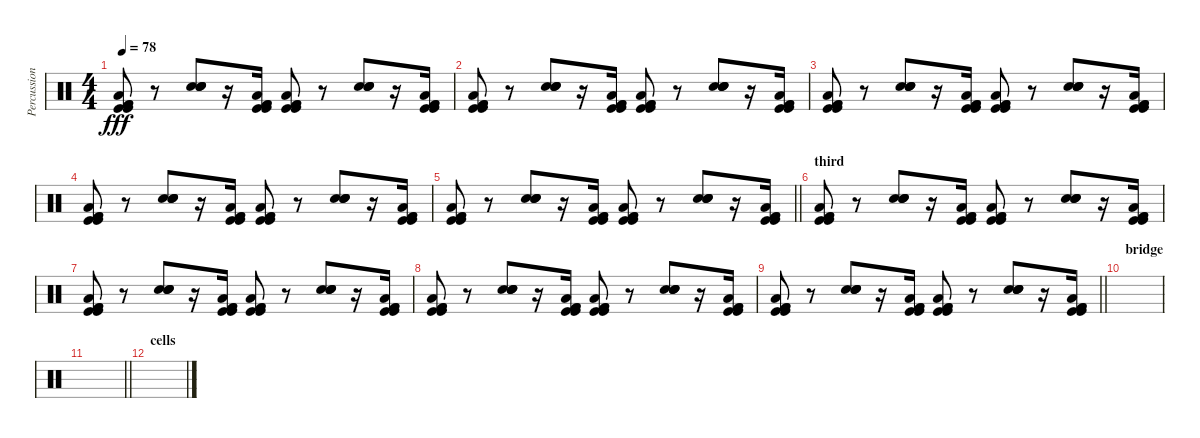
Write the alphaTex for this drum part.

\track ("Percussion" "Percussion") {instrument percussion}
\staff {score}
\articulation defaults
\ts (4 4)
\tempo 78
\clef neutral
\ks c
("Kick (hit) 2" "Kick (hit) 2" "Kick (hit)" "Kick (hit)" "Low Floor Tom (hit)").8{dy fff} r.8 ("Snare (hit) 2" "Snare (hit) 2" "Electric Snare (hit)" "Electric Snare (hit)").8 r.16 ("Kick (hit) 2" "Kick (hit) 2" "Kick (hit)" "Kick (hit)" "Low Floor Tom (hit)").16 ("Kick (hit) 2" "Kick (hit) 2" "Kick (hit)" "Kick (hit)" "Low Floor Tom (hit)").8 r.8 ("Snare (hit) 2" "Snare (hit) 2" "Electric Snare (hit)" "Electric Snare (hit)").8 r.16 ("Kick (hit) 2" "Kick (hit) 2" "Kick (hit)" "Kick (hit)" "Low Floor Tom (hit)").16 |
("Kick (hit) 2" "Kick (hit) 2" "Kick (hit)" "Kick (hit)" "Low Floor Tom (hit)").8 r.8 ("Snare (hit) 2" "Snare (hit) 2" "Electric Snare (hit)" "Electric Snare (hit)").8 r.16 ("Kick (hit) 2" "Kick (hit) 2" "Kick (hit)" "Kick (hit)" "Low Floor Tom (hit)").16 ("Kick (hit) 2" "Kick (hit) 2" "Kick (hit)" "Kick (hit)" "Low Floor Tom (hit)").8 r.8 ("Snare (hit) 2" "Snare (hit) 2" "Electric Snare (hit)" "Electric Snare (hit)").8 r.16 ("Kick (hit) 2" "Kick (hit) 2" "Kick (hit)" "Kick (hit)" "Low Floor Tom (hit)").16 |
("Kick (hit) 2" "Kick (hit) 2" "Kick (hit)" "Kick (hit)" "Low Floor Tom (hit)").8 r.8 ("Snare (hit) 2" "Snare (hit) 2" "Electric Snare (hit)" "Electric Snare (hit)").8 r.16 ("Kick (hit) 2" "Kick (hit) 2" "Kick (hit)" "Kick (hit)" "Low Floor Tom (hit)").16 ("Kick (hit) 2" "Kick (hit) 2" "Kick (hit)" "Kick (hit)" "Low Floor Tom (hit)").8 r.8 ("Snare (hit) 2" "Snare (hit) 2" "Electric Snare (hit)" "Electric Snare (hit)").8 r.16 ("Kick (hit) 2" "Kick (hit) 2" "Kick (hit)" "Kick (hit)" "Low Floor Tom (hit)").16 |
("Kick (hit) 2" "Kick (hit) 2" "Kick (hit)" "Kick (hit)" "Low Floor Tom (hit)").8 r.8 ("Snare (hit) 2" "Snare (hit) 2" "Electric Snare (hit)" "Electric Snare (hit)").8 r.16 ("Kick (hit) 2" "Kick (hit) 2" "Kick (hit)" "Kick (hit)" "Low Floor Tom (hit)").16 ("Kick (hit) 2" "Kick (hit) 2" "Kick (hit)" "Kick (hit)" "Low Floor Tom (hit)").8 r.8 ("Snare (hit) 2" "Snare (hit) 2" "Electric Snare (hit)" "Electric Snare (hit)").8 r.16 ("Kick (hit) 2" "Kick (hit) 2" "Kick (hit)" "Kick (hit)" "Low Floor Tom (hit)").16 |
\barLineRight lightlight
("Kick (hit) 2" "Kick (hit) 2" "Kick (hit)" "Kick (hit)" "Low Floor Tom (hit)").8 r.8 ("Snare (hit) 2" "Snare (hit) 2" "Electric Snare (hit)" "Electric Snare (hit)").8 r.16 ("Kick (hit) 2" "Kick (hit) 2" "Kick (hit)" "Kick (hit)" "Low Floor Tom (hit)").16 ("Kick (hit) 2" "Kick (hit) 2" "Kick (hit)" "Kick (hit)" "Low Floor Tom (hit)").8 r.8 ("Snare (hit) 2" "Snare (hit) 2" "Electric Snare (hit)" "Electric Snare (hit)").8 r.16 ("Kick (hit) 2" "Kick (hit) 2" "Kick (hit)" "Kick (hit)" "Low Floor Tom (hit)").16 |
\section ("" "third")
("Kick (hit) 2" "Kick (hit) 2" "Kick (hit)" "Kick (hit)" "Low Floor Tom (hit)").8 r.8 ("Snare (hit) 2" "Snare (hit) 2" "Electric Snare (hit)" "Electric Snare (hit)").8 r.16 ("Kick (hit) 2" "Kick (hit) 2" "Kick (hit)" "Kick (hit)" "Low Floor Tom (hit)").16 ("Kick (hit) 2" "Kick (hit) 2" "Kick (hit)" "Kick (hit)" "Low Floor Tom (hit)").8 r.8 ("Snare (hit) 2" "Snare (hit) 2" "Electric Snare (hit)" "Electric Snare (hit)").8 r.16 ("Kick (hit) 2" "Kick (hit) 2" "Kick (hit)" "Kick (hit)" "Low Floor Tom (hit)").16 |
("Kick (hit) 2" "Kick (hit) 2" "Kick (hit)" "Kick (hit)" "Low Floor Tom (hit)").8 r.8 ("Snare (hit) 2" "Snare (hit) 2" "Electric Snare (hit)" "Electric Snare (hit)").8 r.16 ("Kick (hit) 2" "Kick (hit) 2" "Kick (hit)" "Kick (hit)" "Low Floor Tom (hit)").16 ("Kick (hit) 2" "Kick (hit) 2" "Kick (hit)" "Kick (hit)" "Low Floor Tom (hit)").8 r.8 ("Snare (hit) 2" "Snare (hit) 2" "Electric Snare (hit)" "Electric Snare (hit)").8 r.16 ("Kick (hit) 2" "Kick (hit) 2" "Kick (hit)" "Kick (hit)" "Low Floor Tom (hit)").16 |
("Kick (hit) 2" "Kick (hit) 2" "Kick (hit)" "Kick (hit)" "Low Floor Tom (hit)").8 r.8 ("Snare (hit) 2" "Snare (hit) 2" "Electric Snare (hit)" "Electric Snare (hit)").8 r.16 ("Kick (hit) 2" "Kick (hit) 2" "Kick (hit)" "Kick (hit)" "Low Floor Tom (hit)").16 ("Kick (hit) 2" "Kick (hit) 2" "Kick (hit)" "Kick (hit)" "Low Floor Tom (hit)").8 r.8 ("Snare (hit) 2" "Snare (hit) 2" "Electric Snare (hit)" "Electric Snare (hit)").8 r.16 ("Kick (hit) 2" "Kick (hit) 2" "Kick (hit)" "Kick (hit)" "Low Floor Tom (hit)").16 |
\barLineRight lightlight
("Kick (hit) 2" "Kick (hit) 2" "Kick (hit)" "Kick (hit)" "Low Floor Tom (hit)").8 r.8 ("Snare (hit) 2" "Snare (hit) 2" "Electric Snare (hit)" "Electric Snare (hit)").8 r.16 ("Kick (hit) 2" "Kick (hit) 2" "Kick (hit)" "Kick (hit)" "Low Floor Tom (hit)").16 ("Kick (hit) 2" "Kick (hit) 2" "Kick (hit)" "Kick (hit)" "Low Floor Tom (hit)").8 r.8 ("Snare (hit) 2" "Snare (hit) 2" "Electric Snare (hit)" "Electric Snare (hit)").8 r.16 ("Kick (hit) 2" "Kick (hit) 2" "Kick (hit)" "Kick (hit)" "Low Floor Tom (hit)").16 |
\section ("" "bridge")
|
\barLineRight lightlight
|
\section ("" "cells")
